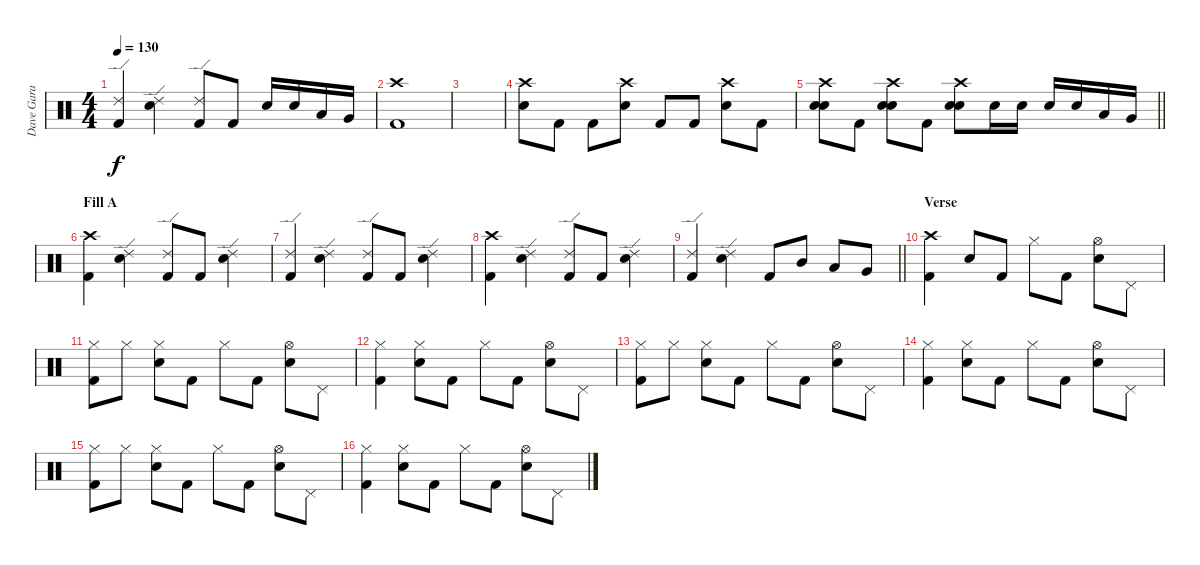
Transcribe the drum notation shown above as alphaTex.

\track ("Dave Gara" "Dave Gara") {instrument percussion}
\staff {score}
\articulation defaults
\ts (4 4)
\tempo 130
\clef neutral
\ks c
("Ride (edge) 2" "Kick (hit) 2").4{dy f} ("Ride (edge) 2" "Electric Snare (hit)").4 ("Ride (edge) 2" "Kick (hit) 2").8 "Kick (hit) 2".8 "Electric Snare (hit)".16 "Electric Snare (hit)".16 "Low Tom (hit)".16 "Very Low Tom (hit)".16 |
("Crash high (hit)" "Kick (hit) 2").1 |
|
("Crash high (hit)" "Electric Snare (hit)").8 "Kick (hit) 2".8 "Kick (hit) 2".8 ("Crash high (hit)" "Electric Snare (hit)").8 "Kick (hit) 2".8 "Kick (hit) 2".8 ("Crash high (hit)" "Electric Snare (hit)").8 "Kick (hit) 2".8 |
\barLineRight lightlight
("Crash high (hit)" "Electric Snare (hit)" "Electric Snare (hit)").8 "Kick (hit) 2".8 ("Crash high (hit)" "Electric Snare (hit)" "Electric Snare (hit)").8 "Kick (hit) 2".8 ("Crash high (hit)" "Electric Snare (hit)" "Electric Snare (hit)").8 "Electric Snare (hit)".16 "Electric Snare (hit)".16 "Electric Snare (hit)".16 "Electric Snare (hit)".16 "Low Tom (hit)".16 "Very Low Tom (hit)".16 |
\section ("" "Fill A")
("Crash high (hit)" "Kick (hit) 2").4 ("Ride (edge) 2" "Electric Snare (hit)").4 ("Ride (edge) 2" "Kick (hit) 2").8 "Kick (hit) 2".8 ("Ride (edge) 2" "Electric Snare (hit)").4 |
("Ride (edge) 2" "Kick (hit) 2").4 ("Ride (edge) 2" "Electric Snare (hit)").4 ("Ride (edge) 2" "Kick (hit) 2").8 "Kick (hit) 2".8 ("Ride (edge) 2" "Electric Snare (hit)").4 |
("Crash high (hit)" "Kick (hit) 2").4 ("Ride (edge) 2" "Electric Snare (hit)").4 ("Ride (edge) 2" "Kick (hit) 2").8 "Kick (hit) 2".8 ("Ride (edge) 2" "Electric Snare (hit)").4 |
\barLineRight lightlight
("Ride (edge) 2" "Kick (hit) 2").4 ("Ride (edge) 2" "Electric Snare (hit)").4 "Kick (hit) 2".8 "Mid Tom (hit)".8 "Low Tom (hit)".8 "Very Low Tom (hit)".8 |
\section ("" "Verse")
("Crash high (hit)" "Kick (hit) 2").4 "Electric Snare (hit)".8 "Kick (hit) 2".8 "Hi-Hat (closed)".8 "Kick (hit) 2".8 ("Hi-Hat (open)" "Electric Snare (hit)").8 "Pedal Hi-Hat (hit)".8 |
("Hi-Hat (closed)" "Kick (hit) 2").8 "Hi-Hat (closed)".8 ("Hi-Hat (closed)" "Electric Snare (hit)").8 "Kick (hit) 2".8 "Hi-Hat (closed)".8 "Kick (hit) 2".8 ("Hi-Hat (open)" "Electric Snare (hit)").8 "Pedal Hi-Hat (hit)".8 |
("Hi-Hat (closed)" "Kick (hit) 2").4 ("Hi-Hat (closed)" "Electric Snare (hit)").8 "Kick (hit) 2".8 "Hi-Hat (closed)".8 "Kick (hit) 2".8 ("Hi-Hat (open)" "Electric Snare (hit)").8 "Pedal Hi-Hat (hit)".8 |
("Hi-Hat (closed)" "Kick (hit) 2").8 "Hi-Hat (closed)".8 ("Hi-Hat (closed)" "Electric Snare (hit)").8 "Kick (hit) 2".8 "Hi-Hat (closed)".8 "Kick (hit) 2".8 ("Hi-Hat (open)" "Electric Snare (hit)").8 "Pedal Hi-Hat (hit)".8 |
("Hi-Hat (closed)" "Kick (hit) 2").4 ("Hi-Hat (closed)" "Electric Snare (hit)").8 "Kick (hit) 2".8 "Hi-Hat (closed)".8 "Kick (hit) 2".8 ("Hi-Hat (open)" "Electric Snare (hit)").8 "Pedal Hi-Hat (hit)".8 |
("Hi-Hat (closed)" "Kick (hit) 2").8 "Hi-Hat (closed)".8 ("Hi-Hat (closed)" "Electric Snare (hit)").8 "Kick (hit) 2".8 "Hi-Hat (closed)".8 "Kick (hit) 2".8 ("Hi-Hat (open)" "Electric Snare (hit)").8 "Pedal Hi-Hat (hit)".8 |
("Hi-Hat (closed)" "Kick (hit) 2").4 ("Hi-Hat (closed)" "Electric Snare (hit)").8 "Kick (hit) 2".8 "Hi-Hat (closed)".8 "Kick (hit) 2".8 ("Hi-Hat (open)" "Electric Snare (hit)").8 "Pedal Hi-Hat (hit)".8
